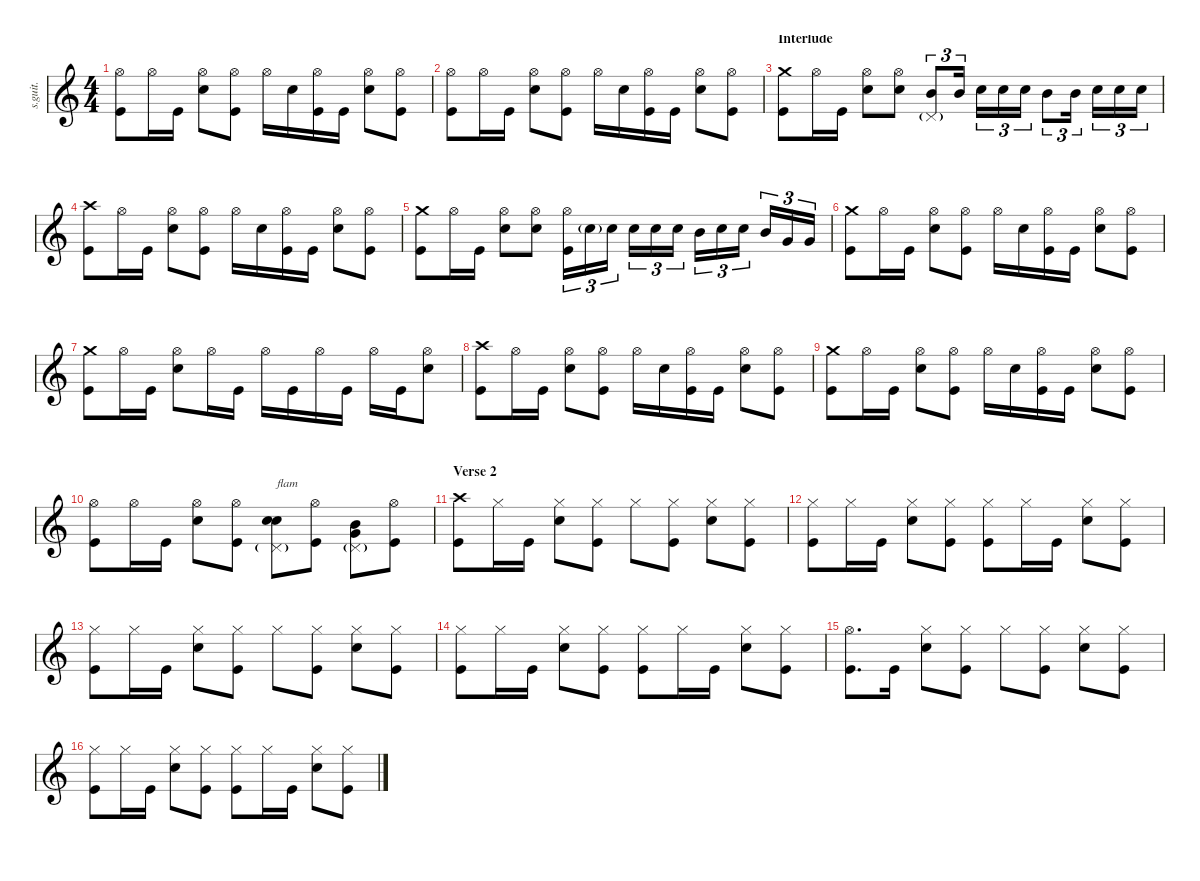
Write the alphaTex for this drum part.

\defaultSystemsLayout 4
\hideDynamics
\bracketExtendMode nobrackets
\track ("Matt Helders" "s.guit.") {instrument percussion}
\staff {score}
\articulation defaults
\ts (4 4)
\tempo (97 hide)
\clef g2
\ks c
("Hi-Hat (open)" "Kick (hit)").8{lyrics (0 "") lyrics (1 "") lyrics (2 "") lyrics (3 "") lyrics (4 "") dy f} "Hi-Hat (open)".16{lyrics (0 "") lyrics (1 "") lyrics (2 "") lyrics (3 "") lyrics (4 "")} "Kick (hit)".16{lyrics (0 "") lyrics (1 "") lyrics (2 "") lyrics (3 "") lyrics (4 "")} ("Hi-Hat (open)" "Snare (hit) 2").8{lyrics (0 "") lyrics (1 "") lyrics (2 "") lyrics (3 "") lyrics (4 "")} ("Hi-Hat (open)" "Kick (hit)").8{lyrics (0 "") lyrics (1 "") lyrics (2 "") lyrics (3 "") lyrics (4 "")} "Hi-Hat (open)".16{lyrics (0 "") lyrics (1 "") lyrics (2 "") lyrics (3 "") lyrics (4 "")} "Snare (hit) 2".16{lyrics (0 "") lyrics (1 "") lyrics (2 "") lyrics (3 "") lyrics (4 "")} ("Hi-Hat (open)" "Kick (hit)").16{lyrics (0 "") lyrics (1 "") lyrics (2 "") lyrics (3 "") lyrics (4 "")} "Kick (hit)".16{lyrics (0 "") lyrics (1 "") lyrics (2 "") lyrics (3 "") lyrics (4 "")} ("Hi-Hat (open)" "Snare (hit) 2").8{lyrics (0 "") lyrics (1 "") lyrics (2 "") lyrics (3 "") lyrics (4 "")} ("Hi-Hat (open)" "Kick (hit)").8{lyrics (0 "") lyrics (1 "") lyrics (2 "") lyrics (3 "") lyrics (4 "")} |
("Hi-Hat (open)" "Kick (hit)").8{lyrics (0 "") lyrics (1 "") lyrics (2 "") lyrics (3 "") lyrics (4 "")} "Hi-Hat (open)".16{lyrics (0 "") lyrics (1 "") lyrics (2 "") lyrics (3 "") lyrics (4 "")} "Kick (hit)".16{lyrics (0 "") lyrics (1 "") lyrics (2 "") lyrics (3 "") lyrics (4 "")} ("Hi-Hat (open)" "Snare (hit) 2").8{lyrics (0 "") lyrics (1 "") lyrics (2 "") lyrics (3 "") lyrics (4 "")} ("Hi-Hat (open)" "Kick (hit)").8{lyrics (0 "") lyrics (1 "") lyrics (2 "") lyrics (3 "") lyrics (4 "")} "Hi-Hat (open)".16{lyrics (0 "") lyrics (1 "") lyrics (2 "") lyrics (3 "") lyrics (4 "")} "Snare (hit) 2".16{lyrics (0 "") lyrics (1 "") lyrics (2 "") lyrics (3 "") lyrics (4 "")} ("Hi-Hat (open)" "Kick (hit)").16{lyrics (0 "") lyrics (1 "") lyrics (2 "") lyrics (3 "") lyrics (4 "")} "Kick (hit)".16{lyrics (0 "") lyrics (1 "") lyrics (2 "") lyrics (3 "") lyrics (4 "")} ("Hi-Hat (open)" "Snare (hit) 2").8{lyrics (0 "") lyrics (1 "") lyrics (2 "") lyrics (3 "") lyrics (4 "")} ("Hi-Hat (open)" "Kick (hit)").8{lyrics (0 "") lyrics (1 "") lyrics (2 "") lyrics (3 "") lyrics (4 "")} |
\section ("" "Interlude")
("Crash medium (hit)" "Kick (hit)").8{lyrics (0 "") lyrics (1 "") lyrics (2 "") lyrics (3 "") lyrics (4 "")} "Hi-Hat (open)".16{lyrics (0 "") lyrics (1 "") lyrics (2 "") lyrics (3 "") lyrics (4 "")} "Kick (hit)".16{lyrics (0 "") lyrics (1 "") lyrics (2 "") lyrics (3 "") lyrics (4 "")} ("Hi-Hat (open)" "Snare (hit) 2").8{lyrics (0 "") lyrics (1 "") lyrics (2 "") lyrics (3 "") lyrics (4 "")} ("Hi-Hat (open)" "Snare (hit) 2").8{lyrics (0 "") lyrics (1 "") lyrics (2 "") lyrics (3 "") lyrics (4 "")} ("Mid Tom (hit)" "Pedal Hi-Hat (hit)"{g}).8{tu (3 2) lyrics (0 "") lyrics (1 "") lyrics (2 "") lyrics (3 "") lyrics (4 "")} "Mid Tom (hit)".16{tu (3 2) lyrics (0 "") lyrics (1 "") lyrics (2 "") lyrics (3 "") lyrics (4 "")} "Snare (hit) 2".16{tu (3 2) lyrics (0 "") lyrics (1 "") lyrics (2 "") lyrics (3 "") lyrics (4 "")} "Snare (hit) 2".16{tu (3 2) lyrics (0 "") lyrics (1 "") lyrics (2 "") lyrics (3 "") lyrics (4 "")} "Snare (hit) 2".16{tu (3 2) lyrics (0 "") lyrics (1 "") lyrics (2 "") lyrics (3 "") lyrics (4 "")} "Mid Tom (hit)".8{tu (3 2) lyrics (0 "") lyrics (1 "") lyrics (2 "") lyrics (3 "") lyrics (4 "")} "Mid Tom (hit)".16{tu (3 2) lyrics (0 "") lyrics (1 "") lyrics (2 "") lyrics (3 "") lyrics (4 "")} "Snare (hit) 2".16{tu (3 2) lyrics (0 "") lyrics (1 "") lyrics (2 "") lyrics (3 "") lyrics (4 "")} "Snare (hit) 2".16{tu (3 2) lyrics (0 "") lyrics (1 "") lyrics (2 "") lyrics (3 "") lyrics (4 "")} "Snare (hit) 2".16{tu (3 2) lyrics (0 "") lyrics (1 "") lyrics (2 "") lyrics (3 "") lyrics (4 "")} |
("Crash high (hit)" "Kick (hit)").8{lyrics (0 "") lyrics (1 "") lyrics (2 "") lyrics (3 "") lyrics (4 "")} "Hi-Hat (open)".16{lyrics (0 "") lyrics (1 "") lyrics (2 "") lyrics (3 "") lyrics (4 "")} "Kick (hit)".16{lyrics (0 "") lyrics (1 "") lyrics (2 "") lyrics (3 "") lyrics (4 "")} ("Hi-Hat (open)" "Snare (hit) 2").8{lyrics (0 "") lyrics (1 "") lyrics (2 "") lyrics (3 "") lyrics (4 "")} ("Hi-Hat (open)" "Kick (hit)").8{lyrics (0 "") lyrics (1 "") lyrics (2 "") lyrics (3 "") lyrics (4 "")} "Hi-Hat (open)".16{lyrics (0 "") lyrics (1 "") lyrics (2 "") lyrics (3 "") lyrics (4 "")} "Snare (hit) 2".16{lyrics (0 "") lyrics (1 "") lyrics (2 "") lyrics (3 "") lyrics (4 "")} ("Hi-Hat (open)" "Kick (hit)").16{lyrics (0 "") lyrics (1 "") lyrics (2 "") lyrics (3 "") lyrics (4 "")} "Kick (hit)".16{lyrics (0 "") lyrics (1 "") lyrics (2 "") lyrics (3 "") lyrics (4 "")} ("Hi-Hat (open)" "Snare (hit) 2").8{lyrics (0 "") lyrics (1 "") lyrics (2 "") lyrics (3 "") lyrics (4 "")} ("Hi-Hat (open)" "Kick (hit)").8{lyrics (0 "") lyrics (1 "") lyrics (2 "") lyrics (3 "") lyrics (4 "")} |
("Crash medium (hit)" "Kick (hit)").8{lyrics (0 "") lyrics (1 "") lyrics (2 "") lyrics (3 "") lyrics (4 "")} "Hi-Hat (open)".16{lyrics (0 "") lyrics (1 "") lyrics (2 "") lyrics (3 "") lyrics (4 "")} "Kick (hit)".16{lyrics (0 "") lyrics (1 "") lyrics (2 "") lyrics (3 "") lyrics (4 "")} ("Hi-Hat (open)" "Snare (hit) 2").8{lyrics (0 "") lyrics (1 "") lyrics (2 "") lyrics (3 "") lyrics (4 "")} ("Hi-Hat (open)" "Snare (hit) 2").8{lyrics (0 "") lyrics (1 "") lyrics (2 "") lyrics (3 "") lyrics (4 "")} ("Hi-Hat (open)" "Kick (hit)").16{tu (3 2) lyrics (0 "") lyrics (1 "") lyrics (2 "") lyrics (3 "") lyrics (4 "")} "Snare (hit) 2"{g}.16{tu (3 2) lyrics (0 "") lyrics (1 "") lyrics (2 "") lyrics (3 "") lyrics (4 "") dy mp} "Snare (hit) 2".16{tu (3 2) lyrics (0 "") lyrics (1 "") lyrics (2 "") lyrics (3 "") lyrics (4 "") dy f} "Snare (hit) 2".16{tu (3 2) lyrics (0 "") lyrics (1 "") lyrics (2 "") lyrics (3 "") lyrics (4 "")} "Snare (hit) 2".16{tu (3 2) lyrics (0 "") lyrics (1 "") lyrics (2 "") lyrics (3 "") lyrics (4 "")} "Snare (hit) 2".16{tu (3 2) lyrics (0 "") lyrics (1 "") lyrics (2 "") lyrics (3 "") lyrics (4 "")} "Mid Tom (hit)".16{tu (3 2) lyrics (0 "") lyrics (1 "") lyrics (2 "") lyrics (3 "") lyrics (4 "")} "Snare (hit) 2".16{tu (3 2) lyrics (0 "") lyrics (1 "") lyrics (2 "") lyrics (3 "") lyrics (4 "")} "Snare (hit) 2".16{tu (3 2) lyrics (0 "") lyrics (1 "") lyrics (2 "") lyrics (3 "") lyrics (4 "")} "Mid Tom (hit)".16{tu (3 2) lyrics (0 "") lyrics (1 "") lyrics (2 "") lyrics (3 "") lyrics (4 "")} "Very Low Tom (hit)".16{tu (3 2) lyrics (0 "") lyrics (1 "") lyrics (2 "") lyrics (3 "") lyrics (4 "")} "Very Low Tom (hit)".16{tu (3 2) lyrics (0 "") lyrics (1 "") lyrics (2 "") lyrics (3 "") lyrics (4 "")} |
("Crash medium (hit)" "Kick (hit)").8{lyrics (0 "") lyrics (1 "") lyrics (2 "") lyrics (3 "") lyrics (4 "")} "Hi-Hat (open)".16{lyrics (0 "") lyrics (1 "") lyrics (2 "") lyrics (3 "") lyrics (4 "")} "Kick (hit)".16{lyrics (0 "") lyrics (1 "") lyrics (2 "") lyrics (3 "") lyrics (4 "")} ("Hi-Hat (open)" "Snare (hit) 2").8{lyrics (0 "") lyrics (1 "") lyrics (2 "") lyrics (3 "") lyrics (4 "")} ("Hi-Hat (open)" "Kick (hit)").8{lyrics (0 "") lyrics (1 "") lyrics (2 "") lyrics (3 "") lyrics (4 "")} "Hi-Hat (open)".16{lyrics (0 "") lyrics (1 "") lyrics (2 "") lyrics (3 "") lyrics (4 "")} "Snare (hit) 2".16{lyrics (0 "") lyrics (1 "") lyrics (2 "") lyrics (3 "") lyrics (4 "")} ("Hi-Hat (open)" "Kick (hit)").16{lyrics (0 "") lyrics (1 "") lyrics (2 "") lyrics (3 "") lyrics (4 "")} "Kick (hit)".16{lyrics (0 "") lyrics (1 "") lyrics (2 "") lyrics (3 "") lyrics (4 "")} ("Hi-Hat (open)" "Snare (hit) 2").8{lyrics (0 "") lyrics (1 "") lyrics (2 "") lyrics (3 "") lyrics (4 "")} ("Hi-Hat (open)" "Kick (hit)").8{lyrics (0 "") lyrics (1 "") lyrics (2 "") lyrics (3 "") lyrics (4 "")} |
("Crash medium (hit)" "Kick (hit)").8{lyrics (0 "") lyrics (1 "") lyrics (2 "") lyrics (3 "") lyrics (4 "")} "Hi-Hat (open)".16{lyrics (0 "") lyrics (1 "") lyrics (2 "") lyrics (3 "") lyrics (4 "")} "Kick (hit)".16{lyrics (0 "") lyrics (1 "") lyrics (2 "") lyrics (3 "") lyrics (4 "")} ("Hi-Hat (open)" "Snare (hit) 2").8{lyrics (0 "") lyrics (1 "") lyrics (2 "") lyrics (3 "") lyrics (4 "")} "Hi-Hat (open)".16{lyrics (0 "") lyrics (1 "") lyrics (2 "") lyrics (3 "") lyrics (4 "")} "Kick (hit)".16{lyrics (0 "") lyrics (1 "") lyrics (2 "") lyrics (3 "") lyrics (4 "")} "Hi-Hat (open)".16{lyrics (0 "") lyrics (1 "") lyrics (2 "") lyrics (3 "") lyrics (4 "")} "Kick (hit)".16{lyrics (0 "") lyrics (1 "") lyrics (2 "") lyrics (3 "") lyrics (4 "")} "Hi-Hat (open)".16{lyrics (0 "") lyrics (1 "") lyrics (2 "") lyrics (3 "") lyrics (4 "")} "Kick (hit)".16{lyrics (0 "") lyrics (1 "") lyrics (2 "") lyrics (3 "") lyrics (4 "")} "Hi-Hat (open)".16{lyrics (0 "") lyrics (1 "") lyrics (2 "") lyrics (3 "") lyrics (4 "")} "Kick (hit)".16{lyrics (0 "") lyrics (1 "") lyrics (2 "") lyrics (3 "") lyrics (4 "")} ("Hi-Hat (open)" "Snare (hit) 2").8{lyrics (0 "") lyrics (1 "") lyrics (2 "") lyrics (3 "") lyrics (4 "")} |
("Crash high (hit)" "Kick (hit)").8{lyrics (0 "") lyrics (1 "") lyrics (2 "") lyrics (3 "") lyrics (4 "")} "Hi-Hat (open)".16{lyrics (0 "") lyrics (1 "") lyrics (2 "") lyrics (3 "") lyrics (4 "")} "Kick (hit)".16{lyrics (0 "") lyrics (1 "") lyrics (2 "") lyrics (3 "") lyrics (4 "")} ("Hi-Hat (open)" "Snare (hit) 2").8{lyrics (0 "") lyrics (1 "") lyrics (2 "") lyrics (3 "") lyrics (4 "")} ("Hi-Hat (open)" "Kick (hit)").8{lyrics (0 "") lyrics (1 "") lyrics (2 "") lyrics (3 "") lyrics (4 "")} "Hi-Hat (open)".16{lyrics (0 "") lyrics (1 "") lyrics (2 "") lyrics (3 "") lyrics (4 "")} "Snare (hit) 2".16{lyrics (0 "") lyrics (1 "") lyrics (2 "") lyrics (3 "") lyrics (4 "")} ("Hi-Hat (open)" "Kick (hit)").16{lyrics (0 "") lyrics (1 "") lyrics (2 "") lyrics (3 "") lyrics (4 "")} "Kick (hit)".16{lyrics (0 "") lyrics (1 "") lyrics (2 "") lyrics (3 "") lyrics (4 "")} ("Hi-Hat (open)" "Snare (hit) 2").8{lyrics (0 "") lyrics (1 "") lyrics (2 "") lyrics (3 "") lyrics (4 "")} ("Hi-Hat (open)" "Kick (hit)").8{lyrics (0 "") lyrics (1 "") lyrics (2 "") lyrics (3 "") lyrics (4 "")} |
("Crash medium (hit)" "Kick (hit)").8{lyrics (0 "") lyrics (1 "") lyrics (2 "") lyrics (3 "") lyrics (4 "")} "Hi-Hat (open)".16{lyrics (0 "") lyrics (1 "") lyrics (2 "") lyrics (3 "") lyrics (4 "")} "Kick (hit)".16{lyrics (0 "") lyrics (1 "") lyrics (2 "") lyrics (3 "") lyrics (4 "")} ("Hi-Hat (open)" "Snare (hit) 2").8{lyrics (0 "") lyrics (1 "") lyrics (2 "") lyrics (3 "") lyrics (4 "")} ("Hi-Hat (open)" "Kick (hit)").8{lyrics (0 "") lyrics (1 "") lyrics (2 "") lyrics (3 "") lyrics (4 "")} "Hi-Hat (open)".16{lyrics (0 "") lyrics (1 "") lyrics (2 "") lyrics (3 "") lyrics (4 "")} "Snare (hit) 2".16{lyrics (0 "") lyrics (1 "") lyrics (2 "") lyrics (3 "") lyrics (4 "")} ("Hi-Hat (open)" "Kick (hit)").16{lyrics (0 "") lyrics (1 "") lyrics (2 "") lyrics (3 "") lyrics (4 "")} "Kick (hit)".16{lyrics (0 "") lyrics (1 "") lyrics (2 "") lyrics (3 "") lyrics (4 "")} ("Hi-Hat (open)" "Snare (hit) 2").8{lyrics (0 "") lyrics (1 "") lyrics (2 "") lyrics (3 "") lyrics (4 "")} ("Hi-Hat (open)" "Kick (hit)").8{lyrics (0 "") lyrics (1 "") lyrics (2 "") lyrics (3 "") lyrics (4 "")} |
("Hi-Hat (open)" "Kick (hit)").8{lyrics (0 "") lyrics (1 "") lyrics (2 "") lyrics (3 "") lyrics (4 "")} "Hi-Hat (open)".16{lyrics (0 "") lyrics (1 "") lyrics (2 "") lyrics (3 "") lyrics (4 "")} "Kick (hit)".16{lyrics (0 "") lyrics (1 "") lyrics (2 "") lyrics (3 "") lyrics (4 "")} ("Hi-Hat (open)" "Snare (hit) 2").8{lyrics (0 "") lyrics (1 "") lyrics (2 "") lyrics (3 "") lyrics (4 "")} ("Hi-Hat (open)" "Kick (hit)").8{lyrics (0 "") lyrics (1 "") lyrics (2 "") lyrics (3 "") lyrics (4 "")} ("Snare (hit) 2" "Snare (hit) 2" "Pedal Hi-Hat (hit)"{g}).8{bd 30 txt "flam" lyrics (0 "") lyrics (1 "") lyrics (2 "") lyrics (3 "") lyrics (4 "")} ("Hi-Hat (open)" "Kick (hit)").8{lyrics (0 "") lyrics (1 "") lyrics (2 "") lyrics (3 "") lyrics (4 "")} ("Mid Tom (hit)" "Very Low Tom (hit)" "Pedal Hi-Hat (hit)"{g}).8{bd 30 lyrics (0 "") lyrics (1 "") lyrics (2 "") lyrics (3 "") lyrics (4 "")} ("Hi-Hat (open)" "Kick (hit)").8{lyrics (0 "") lyrics (1 "") lyrics (2 "") lyrics (3 "") lyrics (4 "")} |
\section ("" "Verse 2")
("Crash high (hit)" "Kick (hit)").8{lyrics (0 "") lyrics (1 "") lyrics (2 "") lyrics (3 "") lyrics (4 "")} "Hi-Hat (closed)".16{lyrics (0 "") lyrics (1 "") lyrics (2 "") lyrics (3 "") lyrics (4 "")} "Kick (hit)".16{lyrics (0 "") lyrics (1 "") lyrics (2 "") lyrics (3 "") lyrics (4 "")} ("Hi-Hat (closed)" "Snare (hit) 2").8{lyrics (0 "") lyrics (1 "") lyrics (2 "") lyrics (3 "") lyrics (4 "")} ("Hi-Hat (closed)" "Kick (hit)").8{lyrics (0 "") lyrics (1 "") lyrics (2 "") lyrics (3 "") lyrics (4 "")} "Hi-Hat (closed)".8{lyrics (0 "") lyrics (1 "") lyrics (2 "") lyrics (3 "") lyrics (4 "")} ("Hi-Hat (closed)" "Kick (hit)").8{lyrics (0 "") lyrics (1 "") lyrics (2 "") lyrics (3 "") lyrics (4 "")} ("Hi-Hat (closed)" "Snare (hit) 2").8{lyrics (0 "") lyrics (1 "") lyrics (2 "") lyrics (3 "") lyrics (4 "")} ("Hi-Hat (closed)" "Kick (hit)").8{lyrics (0 "") lyrics (1 "") lyrics (2 "") lyrics (3 "") lyrics (4 "")} |
("Hi-Hat (closed)" "Kick (hit)").8{lyrics (0 "") lyrics (1 "") lyrics (2 "") lyrics (3 "") lyrics (4 "")} "Hi-Hat (closed)".16{lyrics (0 "") lyrics (1 "") lyrics (2 "") lyrics (3 "") lyrics (4 "")} "Kick (hit)".16{lyrics (0 "") lyrics (1 "") lyrics (2 "") lyrics (3 "") lyrics (4 "")} ("Hi-Hat (closed)" "Snare (hit) 2").8{lyrics (0 "") lyrics (1 "") lyrics (2 "") lyrics (3 "") lyrics (4 "")} ("Hi-Hat (closed)" "Kick (hit)").8{lyrics (0 "") lyrics (1 "") lyrics (2 "") lyrics (3 "") lyrics (4 "")} ("Hi-Hat (closed)" "Kick (hit)").8{lyrics (0 "") lyrics (1 "") lyrics (2 "") lyrics (3 "") lyrics (4 "")} "Hi-Hat (closed)".16{lyrics (0 "") lyrics (1 "") lyrics (2 "") lyrics (3 "") lyrics (4 "")} "Kick (hit)".16{lyrics (0 "") lyrics (1 "") lyrics (2 "") lyrics (3 "") lyrics (4 "")} ("Hi-Hat (closed)" "Snare (hit) 2").8{lyrics (0 "") lyrics (1 "") lyrics (2 "") lyrics (3 "") lyrics (4 "")} ("Hi-Hat (closed)" "Kick (hit)").8{lyrics (0 "") lyrics (1 "") lyrics (2 "") lyrics (3 "") lyrics (4 "")} |
("Hi-Hat (closed)" "Kick (hit)").8{lyrics (0 "") lyrics (1 "") lyrics (2 "") lyrics (3 "") lyrics (4 "")} "Hi-Hat (closed)".16{lyrics (0 "") lyrics (1 "") lyrics (2 "") lyrics (3 "") lyrics (4 "")} "Kick (hit)".16{lyrics (0 "") lyrics (1 "") lyrics (2 "") lyrics (3 "") lyrics (4 "")} ("Hi-Hat (closed)" "Snare (hit) 2").8{lyrics (0 "") lyrics (1 "") lyrics (2 "") lyrics (3 "") lyrics (4 "")} ("Hi-Hat (closed)" "Kick (hit)").8{lyrics (0 "") lyrics (1 "") lyrics (2 "") lyrics (3 "") lyrics (4 "")} "Hi-Hat (closed)".8{lyrics (0 "") lyrics (1 "") lyrics (2 "") lyrics (3 "") lyrics (4 "")} ("Hi-Hat (closed)" "Kick (hit)").8{lyrics (0 "") lyrics (1 "") lyrics (2 "") lyrics (3 "") lyrics (4 "")} ("Hi-Hat (closed)" "Snare (hit) 2").8{lyrics (0 "") lyrics (1 "") lyrics (2 "") lyrics (3 "") lyrics (4 "")} ("Hi-Hat (closed)" "Kick (hit)").8{lyrics (0 "") lyrics (1 "") lyrics (2 "") lyrics (3 "") lyrics (4 "")} |
("Hi-Hat (closed)" "Kick (hit)").8{lyrics (0 "") lyrics (1 "") lyrics (2 "") lyrics (3 "") lyrics (4 "")} "Hi-Hat (closed)".16{lyrics (0 "") lyrics (1 "") lyrics (2 "") lyrics (3 "") lyrics (4 "")} "Kick (hit)".16{lyrics (0 "") lyrics (1 "") lyrics (2 "") lyrics (3 "") lyrics (4 "")} ("Hi-Hat (closed)" "Snare (hit) 2").8{lyrics (0 "") lyrics (1 "") lyrics (2 "") lyrics (3 "") lyrics (4 "")} ("Hi-Hat (closed)" "Kick (hit)").8{lyrics (0 "") lyrics (1 "") lyrics (2 "") lyrics (3 "") lyrics (4 "")} ("Hi-Hat (closed)" "Kick (hit)").8{lyrics (0 "") lyrics (1 "") lyrics (2 "") lyrics (3 "") lyrics (4 "")} "Hi-Hat (closed)".16{lyrics (0 "") lyrics (1 "") lyrics (2 "") lyrics (3 "") lyrics (4 "")} "Kick (hit)".16{lyrics (0 "") lyrics (1 "") lyrics (2 "") lyrics (3 "") lyrics (4 "")} ("Hi-Hat (closed)" "Snare (hit) 2").8{lyrics (0 "") lyrics (1 "") lyrics (2 "") lyrics (3 "") lyrics (4 "")} ("Hi-Hat (closed)" "Kick (hit)").8{lyrics (0 "") lyrics (1 "") lyrics (2 "") lyrics (3 "") lyrics (4 "")} |
("Hi-Hat (open)" "Kick (hit)").8{d lyrics (0 "") lyrics (1 "") lyrics (2 "") lyrics (3 "") lyrics (4 "")} "Kick (hit)".16{lyrics (0 "") lyrics (1 "") lyrics (2 "") lyrics (3 "") lyrics (4 "")} ("Hi-Hat (closed)" "Snare (hit) 2").8{lyrics (0 "") lyrics (1 "") lyrics (2 "") lyrics (3 "") lyrics (4 "")} ("Hi-Hat (closed)" "Kick (hit)").8{lyrics (0 "") lyrics (1 "") lyrics (2 "") lyrics (3 "") lyrics (4 "")} "Hi-Hat (closed)".8{lyrics (0 "") lyrics (1 "") lyrics (2 "") lyrics (3 "") lyrics (4 "")} ("Hi-Hat (closed)" "Kick (hit)").8{lyrics (0 "") lyrics (1 "") lyrics (2 "") lyrics (3 "") lyrics (4 "")} ("Hi-Hat (closed)" "Snare (hit) 2").8{lyrics (0 "") lyrics (1 "") lyrics (2 "") lyrics (3 "") lyrics (4 "")} ("Hi-Hat (closed)" "Kick (hit)").8{lyrics (0 "") lyrics (1 "") lyrics (2 "") lyrics (3 "") lyrics (4 "")} |
("Hi-Hat (closed)" "Kick (hit)").8{lyrics (0 "") lyrics (1 "") lyrics (2 "") lyrics (3 "") lyrics (4 "")} "Hi-Hat (closed)".16{lyrics (0 "") lyrics (1 "") lyrics (2 "") lyrics (3 "") lyrics (4 "")} "Kick (hit)".16{lyrics (0 "") lyrics (1 "") lyrics (2 "") lyrics (3 "") lyrics (4 "")} ("Hi-Hat (closed)" "Snare (hit) 2").8{lyrics (0 "") lyrics (1 "") lyrics (2 "") lyrics (3 "") lyrics (4 "")} ("Hi-Hat (closed)" "Kick (hit)").8{lyrics (0 "") lyrics (1 "") lyrics (2 "") lyrics (3 "") lyrics (4 "")} ("Hi-Hat (closed)" "Kick (hit)").8{lyrics (0 "") lyrics (1 "") lyrics (2 "") lyrics (3 "") lyrics (4 "")} "Hi-Hat (closed)".16{lyrics (0 "") lyrics (1 "") lyrics (2 "") lyrics (3 "") lyrics (4 "")} "Kick (hit)".16{lyrics (0 "") lyrics (1 "") lyrics (2 "") lyrics (3 "") lyrics (4 "")} ("Hi-Hat (closed)" "Snare (hit) 2").8{lyrics (0 "") lyrics (1 "") lyrics (2 "") lyrics (3 "") lyrics (4 "")} ("Hi-Hat (closed)" "Kick (hit)").8{lyrics (0 "") lyrics (1 "") lyrics (2 "") lyrics (3 "") lyrics (4 "")}
